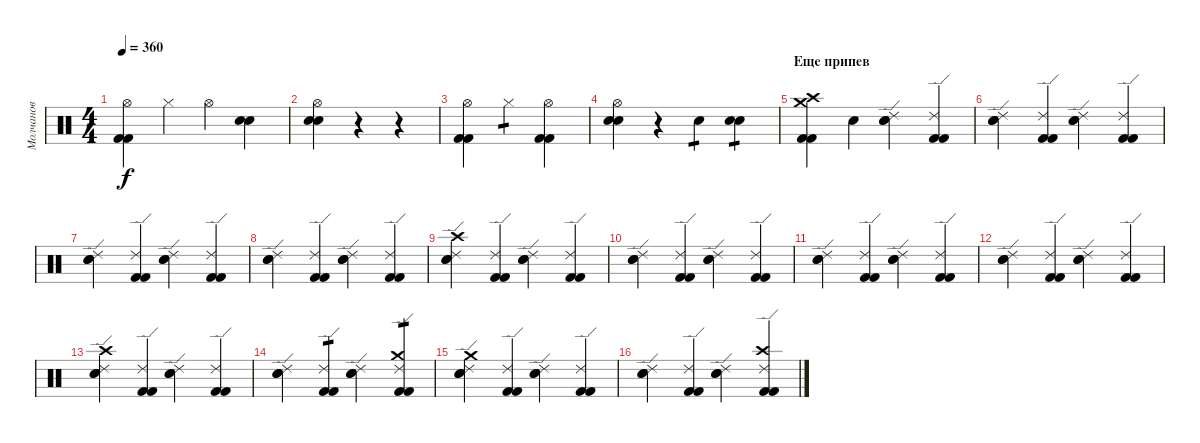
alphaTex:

\track ("Молчанов" "Молчанов") {instrument percussion}
\staff {score}
\articulation defaults
\ts (4 4)
\tempo 360
\clef neutral
\ks c
("Kick (hit) 2" "Kick (hit) 2" "Hi-Hat (open)").4{dy f} "Hi-Hat (closed)"{x}.4 "Hi-Hat (open)"{x}.4 ("Snare (hit)"{x} "Snare (hit)"{x}).4 |
("Electric Snare (hit)" "Electric Snare (hit)" "Hi-Hat (open)").4 r.4 r.4 |
("Kick (hit) 2" "Kick (hit) 2" "Hi-Hat (open)").4 "Hi-Hat (closed)".4{tp 1} ("Kick (hit) 2" "Kick (hit) 2" "Hi-Hat (open)").4 |
("Electric Snare (hit)" "Electric Snare (hit)" "Hi-Hat (open)").4 r.4 "Electric Snare (hit)".4{tp 1} ("Electric Snare (hit)" "Electric Snare (hit)").4{tp 1} |
\section ("" "Еще припев")
("Kick (hit) 2" "Kick (hit) 2" "Crash high (hit)" "Crash medium (hit)").4 "Snare (hit)"{x}.4 ("Ride (edge) 2" "Electric Snare (hit)" "Electric Snare (hit)").4 ("Ride (edge) 2" "Kick (hit) 2" "Kick (hit) 2").4 |
("Ride (edge) 2" "Electric Snare (hit)" "Electric Snare (hit)").4 ("Ride (edge) 2" "Kick (hit) 2" "Kick (hit) 2").4 ("Ride (edge) 2" "Electric Snare (hit)" "Electric Snare (hit)").4 ("Ride (edge) 2" "Kick (hit) 2" "Kick (hit) 2").4 |
("Ride (edge) 2" "Electric Snare (hit)" "Electric Snare (hit)").4 ("Ride (edge) 2" "Kick (hit) 2" "Kick (hit) 2").4 ("Ride (edge) 2" "Electric Snare (hit)" "Electric Snare (hit)").4 ("Ride (edge) 2" "Kick (hit) 2" "Kick (hit) 2").4 |
("Ride (edge) 2" "Electric Snare (hit)" "Electric Snare (hit)").4 ("Ride (edge) 2" "Kick (hit) 2" "Kick (hit) 2").4 ("Ride (edge) 2" "Electric Snare (hit)" "Electric Snare (hit)").4 ("Ride (edge) 2" "Kick (hit) 2" "Kick (hit) 2").4 |
("Ride (edge) 2" "Electric Snare (hit)" "Electric Snare (hit)" "Crash high (hit)").4 ("Ride (edge) 2" "Kick (hit) 2" "Kick (hit) 2").4 ("Ride (edge) 2" "Electric Snare (hit)" "Electric Snare (hit)").4 ("Ride (edge) 2" "Kick (hit) 2" "Kick (hit) 2").4 |
("Ride (edge) 2" "Electric Snare (hit)" "Electric Snare (hit)").4 ("Ride (edge) 2" "Kick (hit) 2" "Kick (hit) 2").4 ("Ride (edge) 2" "Electric Snare (hit)" "Electric Snare (hit)").4 ("Ride (edge) 2" "Kick (hit) 2" "Kick (hit) 2").4 |
("Ride (edge) 2" "Electric Snare (hit)" "Electric Snare (hit)").4 ("Ride (edge) 2" "Kick (hit) 2" "Kick (hit) 2").4 ("Ride (edge) 2" "Electric Snare (hit)" "Electric Snare (hit)").4 ("Ride (edge) 2" "Kick (hit) 2" "Kick (hit) 2").4 |
("Ride (edge) 2" "Electric Snare (hit)" "Electric Snare (hit)").4 ("Ride (edge) 2" "Kick (hit) 2" "Kick (hit) 2").4 ("Ride (edge) 2" "Electric Snare (hit)" "Electric Snare (hit)").4 ("Ride (edge) 2" "Kick (hit) 2" "Kick (hit) 2").4 |
("Ride (edge) 2" "Electric Snare (hit)" "Electric Snare (hit)" "Crash high (hit)").4 ("Ride (edge) 2" "Kick (hit) 2" "Kick (hit) 2").4 ("Ride (edge) 2" "Electric Snare (hit)" "Electric Snare (hit)").4 ("Ride (edge) 2" "Kick (hit) 2" "Kick (hit) 2").4 |
("Ride (edge) 2" "Electric Snare (hit)" "Electric Snare (hit)").4 ("Ride (edge) 2" "Kick (hit) 2" "Kick (hit) 2").4{tp 1} ("Ride (edge) 2" "Electric Snare (hit)" "Electric Snare (hit)").4 ("Ride (edge) 2" "Kick (hit) 2" "Kick (hit) 2" "Crash medium (hit)").4{tp 1} |
("Ride (edge) 2" "Electric Snare (hit)" "Electric Snare (hit)" "Crash medium (hit)").4 ("Ride (edge) 2" "Kick (hit) 2" "Kick (hit) 2").4 ("Ride (edge) 2" "Electric Snare (hit)" "Electric Snare (hit)").4 ("Ride (edge) 2" "Kick (hit) 2" "Kick (hit) 2").4 |
("Ride (edge) 2" "Electric Snare (hit)" "Electric Snare (hit)").4 ("Ride (edge) 2" "Kick (hit) 2" "Kick (hit) 2").4 ("Ride (edge) 2" "Electric Snare (hit)" "Electric Snare (hit)").4 ("Ride (edge) 2" "Kick (hit) 2" "Kick (hit) 2" "Crash high (hit)").4
